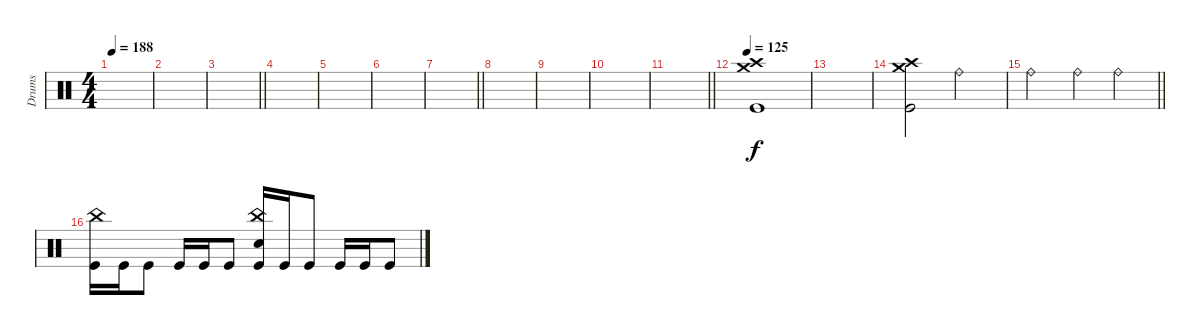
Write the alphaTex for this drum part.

\track ("Drums" "Drums") {instrument percussion}
\staff
\articulation defaults
\ts (4 4)
\tempo 188
\clef neutral
\ks c
|
|
\barLineRight lightlight
|
|
|
|
\barLineRight lightlight
|
|
|
|
\barLineRight lightlight
|
\tempo 125
("Crash high (hit)" "Crash medium (hit)" "Kick (hit)").1 |
|
("Crash high (hit)" "Crash medium (hit)" "Kick (hit)").2 "Ride (bell)".2 |
\barLineRight lightlight "Ride (bell)".2 "Ride (bell)".4 "Ride (bell)".4
|
\section ("" "")
("China (hit)" "Kick (hit)").16 "Kick (hit)".16 "Kick (hit)".8 "Kick (hit)".16 "Kick (hit)".16 "Kick (hit)".8 ("China (hit)" "Electric Snare (hit)" "Kick (hit)").16 "Kick (hit)".16 "Kick (hit)".8 "Kick (hit)".16 "Kick (hit)".16 "Kick (hit)".8
